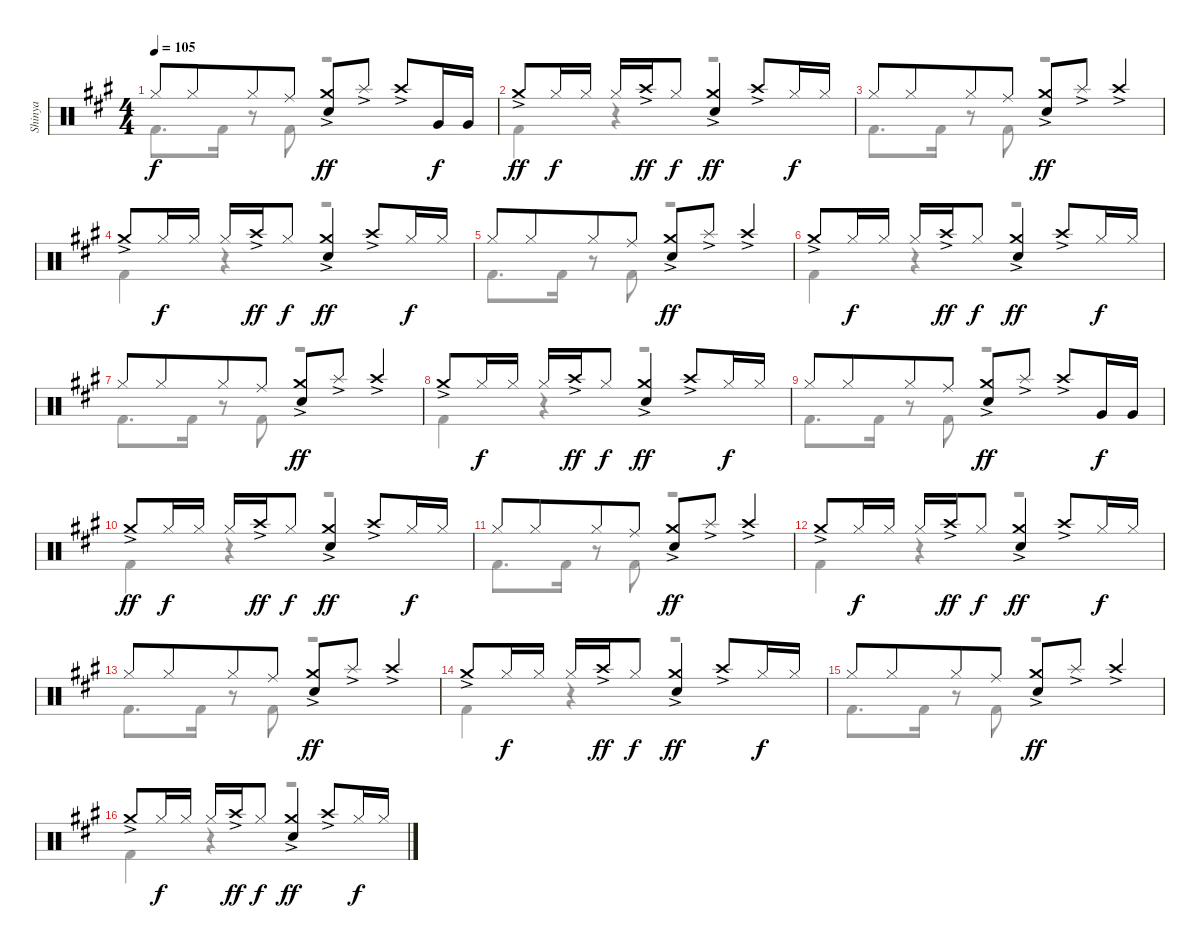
\track ("Shinya" "Shinya") {instrument percussion}
\staff {score}
\articulation defaults
\voice
\ts (4 4)
\tempo 105
\clef neutral
\ks f#minor "Hi-Hat (closed)".8{dy f} "Hi-Hat (closed)".8{beam merge} "Hi-Hat (closed)".8 "Ride (middle)".8
("Crash medium (hit)"{ac} "Snare (hit) 2").8{dy ff} "Splash (hit)"{ac}.8 "Crash high (hit)"{ac}.8 "Very Low Tom (hit)".16{dy f} "Very Low Tom (hit)".16 |
"Crash medium (hit)"{ac}.8{dy ff} "Hi-Hat (closed)".16{dy f} "Hi-Hat (closed)".16 "Hi-Hat (closed)".16 "Crash high (hit)"{ac}.16{dy ff} "Hi-Hat (closed)".8{dy f} ("Crash medium (hit)"{ac} "Snare (hit) 2").4{dy ff} "Crash high (hit)"{ac}.8 "Hi-Hat (closed)".16{dy f} "Hi-Hat (closed)".16 |
"Hi-Hat (closed)".8{volume 3} "Hi-Hat (closed)".8{beam merge} "Hi-Hat (closed)".8 "Ride (middle)".8 ("Crash medium (hit)"{ac} "Snare (hit) 2").8{dy ff} "Splash (hit)"{ac}.8 "Crash high (hit)"{ac}.4 |
"Crash medium (hit)"{ac}.8 "Hi-Hat (closed)".16{dy f} "Hi-Hat (closed)".16 "Hi-Hat (closed)".16 "Crash high (hit)"{ac}.16{dy ff} "Hi-Hat (closed)".8{dy f} ("Crash medium (hit)"{ac} "Snare (hit) 2").4{dy ff} "Crash high (hit)"{ac}.8 "Hi-Hat (closed)".16{dy f} "Hi-Hat (closed)".16 |
"Hi-Hat (closed)".8 "Hi-Hat (closed)".8{beam merge} "Hi-Hat (closed)".8 "Ride (middle)".8 ("Crash medium (hit)"{ac} "Snare (hit) 2").8{dy ff} "Splash (hit)"{ac}.8 "Crash high (hit)"{ac}.4 |
"Crash medium (hit)"{ac}.8 "Hi-Hat (closed)".16{dy f} "Hi-Hat (closed)".16 "Hi-Hat (closed)".16 "Crash high (hit)"{ac}.16{dy ff} "Hi-Hat (closed)".8{dy f} ("Crash medium (hit)"{ac} "Snare (hit) 2").4{dy ff} "Crash high (hit)"{ac}.8 "Hi-Hat (closed)".16{dy f} "Hi-Hat (closed)".16 |
"Hi-Hat (closed)".8{volume 2} "Hi-Hat (closed)".8{beam merge} "Hi-Hat (closed)".8 "Ride (middle)".8 ("Crash medium (hit)"{ac} "Snare (hit) 2").8{dy ff} "Splash (hit)"{ac}.8 "Crash high (hit)"{ac}.4 |
"Crash medium (hit)"{ac}.8 "Hi-Hat (closed)".16{dy f} "Hi-Hat (closed)".16 "Hi-Hat (closed)".16 "Crash high (hit)"{ac}.16{dy ff} "Hi-Hat (closed)".8{dy f} ("Crash medium (hit)"{ac} "Snare (hit) 2").4{dy ff} "Crash high (hit)"{ac}.8 "Hi-Hat (closed)".16{dy f} "Hi-Hat (closed)".16 |
"Hi-Hat (closed)".8 "Hi-Hat (closed)".8{beam merge} "Hi-Hat (closed)".8 "Ride (middle)".8 ("Crash medium (hit)"{ac} "Snare (hit) 2").8{dy ff} "Splash (hit)"{ac}.8 "Crash high (hit)"{ac}.8 "Very Low Tom (hit)".16{dy f} "Very Low Tom (hit)".16 |
"Crash medium (hit)"{ac}.8{dy ff} "Hi-Hat (closed)".16{dy f} "Hi-Hat (closed)".16 "Hi-Hat (closed)".16 "Crash high (hit)"{ac}.16{dy ff} "Hi-Hat (closed)".8{dy f} ("Crash medium (hit)"{ac} "Snare (hit) 2").4{dy ff} "Crash high (hit)"{ac}.8 "Hi-Hat (closed)".16{dy f} "Hi-Hat (closed)".16 |
"Hi-Hat (closed)".8{volume 1} "Hi-Hat (closed)".8{beam merge} "Hi-Hat (closed)".8 "Ride (middle)".8 ("Crash medium (hit)"{ac} "Snare (hit) 2").8{dy ff} "Splash (hit)"{ac}.8 "Crash high (hit)"{ac}.4 |
"Crash medium (hit)"{ac}.8 "Hi-Hat (closed)".16{dy f} "Hi-Hat (closed)".16 "Hi-Hat (closed)".16 "Crash high (hit)"{ac}.16{dy ff} "Hi-Hat (closed)".8{dy f} ("Crash medium (hit)"{ac} "Snare (hit) 2").4{dy ff} "Crash high (hit)"{ac}.8 "Hi-Hat (closed)".16{dy f} "Hi-Hat (closed)".16 |
"Hi-Hat (closed)".8 "Hi-Hat (closed)".8{beam merge} "Hi-Hat (closed)".8 "Ride (middle)".8 ("Crash medium (hit)"{ac} "Snare (hit) 2").8{dy ff} "Splash (hit)"{ac}.8 "Crash high (hit)"{ac}.4 |
"Crash medium (hit)"{ac}.8 "Hi-Hat (closed)".16{dy f} "Hi-Hat (closed)".16 "Hi-Hat (closed)".16 "Crash high (hit)"{ac}.16{dy ff} "Hi-Hat (closed)".8{dy f} ("Crash medium (hit)"{ac} "Snare (hit) 2").4{dy ff} "Crash high (hit)"{ac}.8 "Hi-Hat (closed)".16{dy f} "Hi-Hat (closed)".16 |
"Hi-Hat (closed)".8{volume 0} "Hi-Hat (closed)".8{beam merge} "Hi-Hat (closed)".8 "Ride (middle)".8 ("Crash medium (hit)"{ac} "Snare (hit) 2").8{dy ff} "Splash (hit)"{ac}.8 "Crash high (hit)"{ac}.4 |
"Crash medium (hit)"{ac}.8 "Hi-Hat (closed)".16{dy f} "Hi-Hat (closed)".16 "Hi-Hat (closed)".16 "Crash high (hit)"{ac}.16{dy ff} "Hi-Hat (closed)".8{dy f} ("Crash medium (hit)"{ac} "Snare (hit) 2").4{dy ff} "Crash high (hit)"{ac}.8 "Hi-Hat (closed)".16{dy f} "Hi-Hat (closed)".16
\voice
\clef neutral
\ottava regular
\simile none
\ks f#minor "Kick (hit) 2".8{d dy f} "Kick (hit) 2".16
r.8 "Kick (hit) 2".8 r.2 |
"Kick (hit) 2".4 r.4 r.2 |
"Kick (hit) 2".8{d} "Kick (hit) 2".16 r.8 "Kick (hit) 2".8 r.2 |
"Kick (hit) 2".4 r.4 r.2 |
"Kick (hit) 2".8{d} "Kick (hit) 2".16 r.8 "Kick (hit) 2".8 r.2 |
"Kick (hit) 2".4 r.4 r.2 |
"Kick (hit) 2".8{d} "Kick (hit) 2".16 r.8 "Kick (hit) 2".8 r.2 |
"Kick (hit) 2".4 r.4 r.2 |
"Kick (hit) 2".8{d} "Kick (hit) 2".16 r.8 "Kick (hit) 2".8 r.2 |
"Kick (hit) 2".4 r.4 r.2 |
"Kick (hit) 2".8{d} "Kick (hit) 2".16 r.8 "Kick (hit) 2".8 r.2 |
"Kick (hit) 2".4 r.4 r.2 |
"Kick (hit) 2".8{d} "Kick (hit) 2".16 r.8 "Kick (hit) 2".8 r.2 |
"Kick (hit) 2".4 r.4 r.2 |
"Kick (hit) 2".8{d} "Kick (hit) 2".16 r.8 "Kick (hit) 2".8 r.2 |
"Kick (hit) 2".4 r.4 r.2
